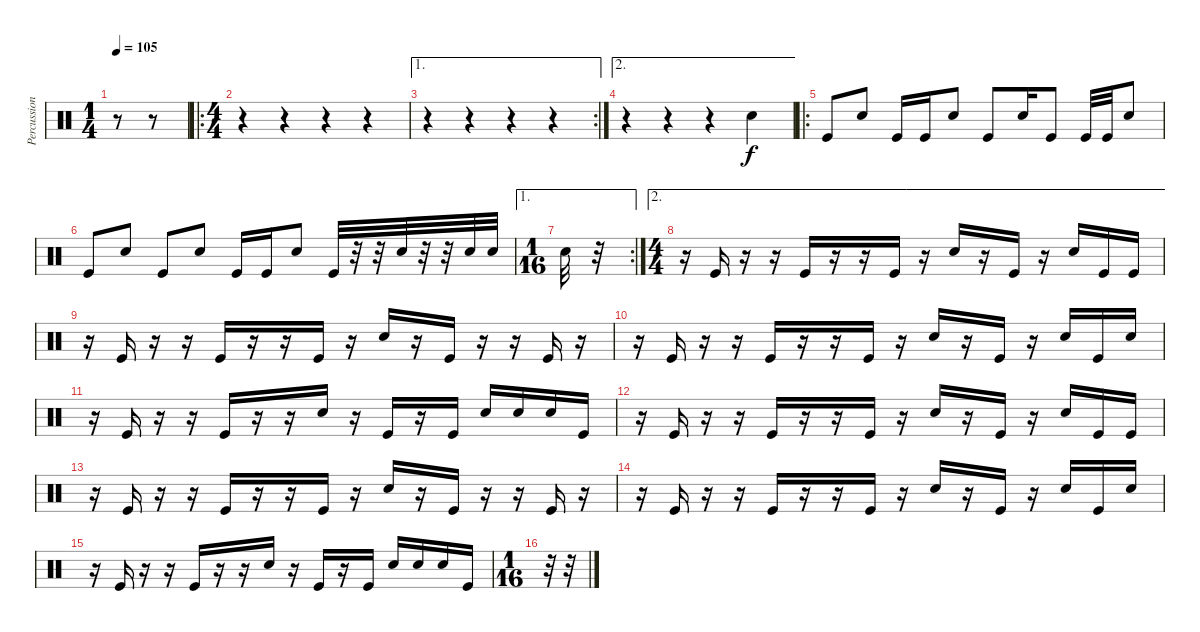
\track ("Percussion" "Percussion") {instrument percussion}
\staff {score}
\articulation defaults
\ts (1 4)
\tempo 105
\clef neutral
\ks c
r.8{dy f} r.8 |
\ro
\ts (4 4)
r.4 r.4 r.4 r.4 |
\ae 1
\rc 2
r.4 r.4 r.4 r.4 |
\ae 2
r.4 r.4 r.4 "Electric Snare (hit)".4 |
\ro "Kick (hit)".8 "Electric Snare (hit)".8 "Kick (hit)".16 "Kick (hit)".16 "Electric Snare (hit)".8 "Kick (hit)".8 "Electric Snare (hit)".16 "Kick (hit)".8 "Kick (hit)".32 "Kick (hit)".32 "Electric Snare (hit)".8
|
"Kick (hit)".8 "Electric Snare (hit)".8 "Kick (hit)".8 "Electric Snare (hit)".8 "Kick (hit)".16 "Kick (hit)".16 "Electric Snare (hit)".8 "Kick (hit)".32 r.32 r.32 "Electric Snare (hit)".32 r.32 r.32 "Electric Snare (hit)".32 "Electric Snare (hit)".32 |
\ae 1
\rc 2
\ts (1 16)
"Electric Snare (hit)".32 r.32 |
\ae 2
\ts (4 4)
r.16 "Kick (hit)".16 r.16 r.16 "Kick (hit)".16 r.16 r.16 "Kick (hit)".16 r.16 "Electric Snare (hit)".16 r.16 "Kick (hit)".16 r.16 "Electric Snare (hit)".16 "Kick (hit)".16 "Kick (hit)".16 |
r.16 "Kick (hit)".16 r.16 r.16 "Kick (hit)".16 r.16 r.16 "Kick (hit)".16 r.16 "Electric Snare (hit)".16 r.16 "Kick (hit)".16 r.16 r.16 "Kick (hit)".16 r.16 |
r.16 "Kick (hit)".16 r.16 r.16 "Kick (hit)".16 r.16 r.16 "Kick (hit)".16 r.16 "Electric Snare (hit)".16 r.16 "Kick (hit)".16 r.16 "Electric Snare (hit)".16 "Kick (hit)".16 "Electric Snare (hit)".16 |
r.16 "Kick (hit)".16 r.16 r.16 "Kick (hit)".16 r.16 r.16 "Electric Snare (hit)".16 r.16 "Kick (hit)".16 r.16 "Kick (hit)".16 "Electric Snare (hit)".16 "Electric Snare (hit)".16 "Electric Snare (hit)".16 "Kick (hit)".16 |
r.16 "Kick (hit)".16 r.16 r.16 "Kick (hit)".16 r.16 r.16 "Kick (hit)".16 r.16 "Electric Snare (hit)".16 r.16 "Kick (hit)".16 r.16 "Electric Snare (hit)".16 "Kick (hit)".16 "Kick (hit)".16 |
r.16 "Kick (hit)".16 r.16 r.16 "Kick (hit)".16 r.16 r.16 "Kick (hit)".16 r.16 "Electric Snare (hit)".16 r.16 "Kick (hit)".16 r.16 r.16 "Kick (hit)".16 r.16 |
r.16 "Kick (hit)".16 r.16 r.16 "Kick (hit)".16 r.16 r.16 "Kick (hit)".16 r.16 "Electric Snare (hit)".16 r.16 "Kick (hit)".16 r.16 "Electric Snare (hit)".16 "Kick (hit)".16 "Electric Snare (hit)".16 |
r.16 "Kick (hit)".16 r.16 r.16 "Kick (hit)".16 r.16 r.16 "Electric Snare (hit)".16 r.16 "Kick (hit)".16 r.16 "Kick (hit)".16 "Electric Snare (hit)".16 "Electric Snare (hit)".16 "Electric Snare (hit)".16 "Kick (hit)".16 |
\ts (1 16)
r.32 r.32
